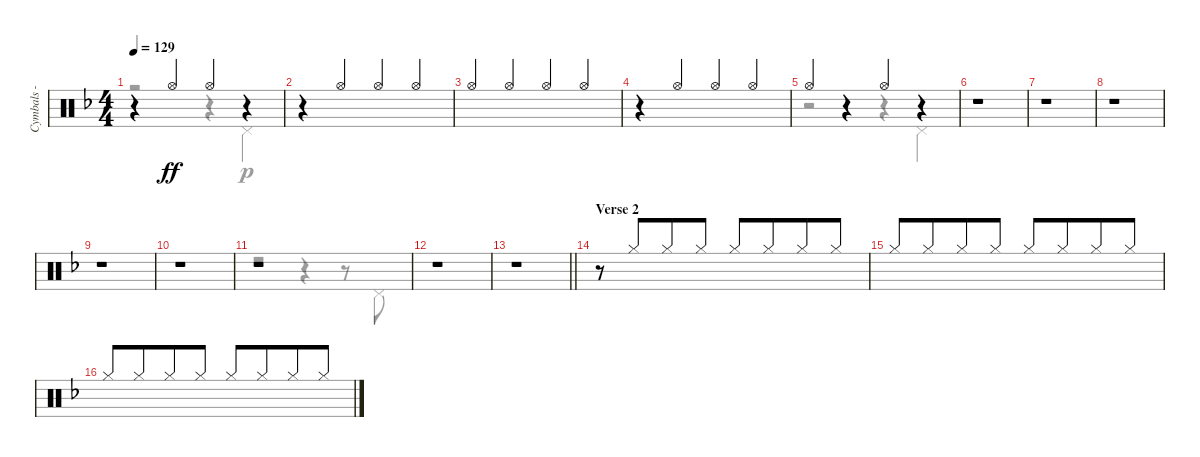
\track ("Cymbals - hi-hat" "Cymbals - ") {instrument percussion}
\staff {score}
\articulation defaults
\voice
\ts (4 4)
\tempo 129
\clef neutral
\ks dminor
r.4{dy ff} "Hi-Hat (open)".4{beam Up} "Hi-Hat (open)".4{beam Up} r.4 |
r.4 "Hi-Hat (open)".4{beam Up} "Hi-Hat (open)".4{beam Up} "Hi-Hat (open)".4{beam Up} |
"Hi-Hat (open)".4{beam Up} "Hi-Hat (open)".4{beam Up} "Hi-Hat (open)".4{beam Up} "Hi-Hat (open)".4{beam Up} |
r.4 "Hi-Hat (open)".4{beam Up} "Hi-Hat (open)".4{beam Up} "Hi-Hat (open)".4{beam Up} |
"Hi-Hat (open)".4{beam Up} r.4 "Hi-Hat (open)".4{beam Up} r.4 |
r.1 |
r.1 |
r.1 |
r.1 |
r.1 |
r.1 |
r.1 |
\barLineRight lightlight
r.1 |
\section ("" "Verse 2")
r.8{volume 7} "Hi-Hat (closed)".8{beam Up beam merge} "Hi-Hat (closed)".8{beam Up} "Hi-Hat (closed)".8{beam Up} "Hi-Hat (closed)".8{beam Up} "Hi-Hat (closed)".8{beam Up beam merge} "Hi-Hat (closed)".8{beam Up} "Hi-Hat (closed)".8{beam Up} |
"Hi-Hat (closed)".8{beam Up} "Hi-Hat (closed)".8{beam Up beam merge} "Hi-Hat (closed)".8{beam Up} "Hi-Hat (closed)".8{beam Up} "Hi-Hat (closed)".8{beam Up} "Hi-Hat (closed)".8{beam Up beam merge} "Hi-Hat (closed)".8{beam Up} "Hi-Hat (closed)".8{beam Up} |
"Hi-Hat (closed)".8{beam Up} "Hi-Hat (closed)".8{beam Up beam merge} "Hi-Hat (closed)".8{beam Up} "Hi-Hat (closed)".8{beam Up} "Hi-Hat (closed)".8{beam Up} "Hi-Hat (closed)".8{beam Up beam merge} "Hi-Hat (closed)".8{beam Up} "Hi-Hat (closed)".8{beam Up}
\voice
\clef neutral
\ottava regular
\simile none
\ks dminor
r.2{dy p} r.4 "Pedal Hi-Hat (hit)".4{beam Down} |
|
|
|
r.2 r.4 "Pedal Hi-Hat (hit)".4{beam Down} |
|
|
|
|
|
r.2 r.4 r.8 "Pedal Hi-Hat (hit)".8{beam Down} |
|
\barLineRight lightlight
|
|
|
